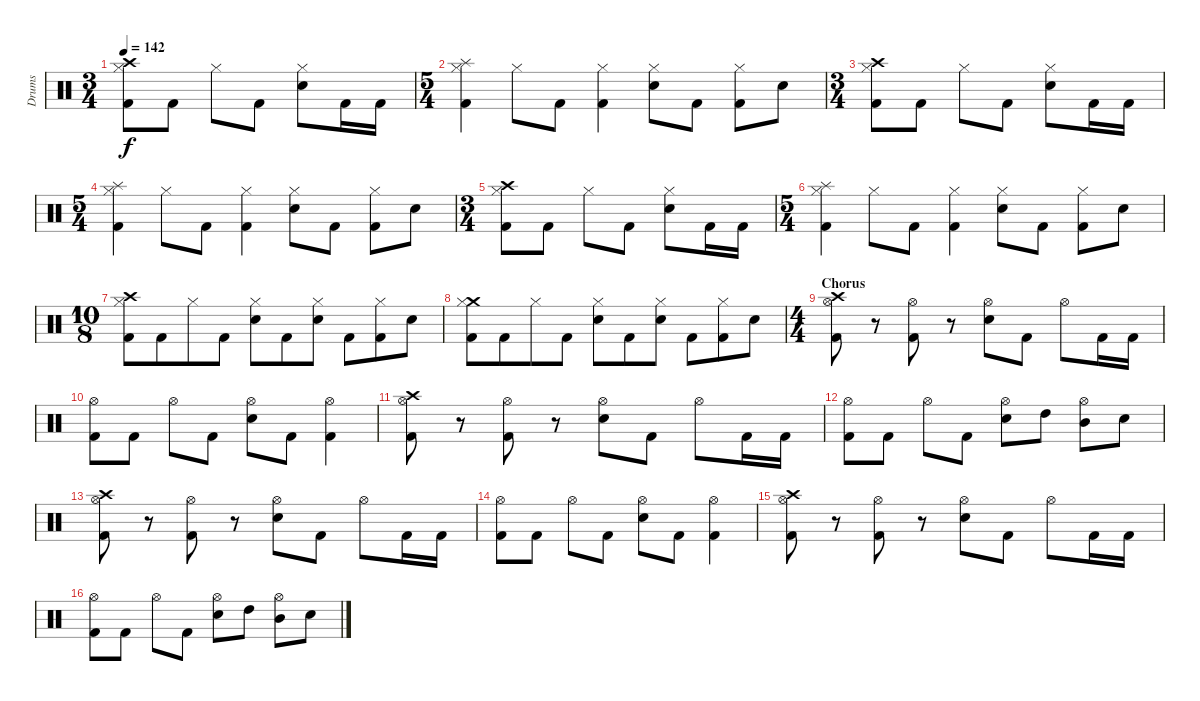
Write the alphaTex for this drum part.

\track ("Drums" "Drums") {instrument percussion}
\staff {score}
\articulation defaults
\ts (3 4)
\tempo 142
\clef neutral
\ks c
("Crash high (hit)" "Hi-Hat (closed)" "Kick (hit) 2").8{dy f} "Kick (hit) 2".8 "Hi-Hat (closed)".8 "Kick (hit) 2".8 ("Hi-Hat (closed)" "Electric Snare (hit)").8 "Kick (hit) 2".16 "Kick (hit) 2".16 |
\ts (5 4)
("Splash (hit)" "Hi-Hat (closed)" "Kick (hit) 2").4 "Hi-Hat (closed)".8 "Kick (hit) 2".8 ("Hi-Hat (closed)" "Kick (hit) 2").4 ("Hi-Hat (closed)" "Electric Snare (hit)").8 "Kick (hit) 2".8 ("Hi-Hat (closed)" "Kick (hit) 2").8 "Electric Snare (hit)".8 |
\ts (3 4)
("Crash high (hit)" "Hi-Hat (closed)" "Kick (hit) 2").8 "Kick (hit) 2".8 "Hi-Hat (closed)".8 "Kick (hit) 2".8 ("Hi-Hat (closed)" "Electric Snare (hit)").8 "Kick (hit) 2".16 "Kick (hit) 2".16 |
\ts (5 4)
("Splash (hit)" "Hi-Hat (closed)" "Kick (hit) 2").4 "Hi-Hat (closed)".8 "Kick (hit) 2".8 ("Hi-Hat (closed)" "Kick (hit) 2").4 ("Hi-Hat (closed)" "Electric Snare (hit)").8 "Kick (hit) 2".8 ("Hi-Hat (closed)" "Kick (hit) 2").8 "Electric Snare (hit)".8 |
\ts (3 4)
("Crash high (hit)" "Hi-Hat (closed)" "Kick (hit) 2").8 "Kick (hit) 2".8 "Hi-Hat (closed)".8 "Kick (hit) 2".8 ("Hi-Hat (closed)" "Electric Snare (hit)").8 "Kick (hit) 2".16 "Kick (hit) 2".16 |
\ts (5 4)
("Splash (hit)" "Hi-Hat (closed)" "Kick (hit) 2").4 "Hi-Hat (closed)".8 "Kick (hit) 2".8 ("Hi-Hat (closed)" "Kick (hit) 2").4 ("Hi-Hat (closed)" "Electric Snare (hit)").8 "Kick (hit) 2".8 ("Hi-Hat (closed)" "Kick (hit) 2").8 "Electric Snare (hit)".8 |
\ts (10 8)
("Crash high (hit)" "Hi-Hat (closed)" "Kick (hit) 2").8 "Kick (hit) 2".8 "Hi-Hat (closed)".8 "Kick (hit) 2".8 ("Hi-Hat (closed)" "Electric Snare (hit)").8 "Kick (hit) 2".8 ("Hi-Hat (closed)" "Electric Snare (hit)").8 "Kick (hit) 2".8 ("Hi-Hat (closed)" "Kick (hit) 2").8 "Electric Snare (hit)".8 |
("Crash medium (hit)" "Hi-Hat (closed)" "Kick (hit) 2").8 "Kick (hit) 2".8 "Hi-Hat (closed)".8 "Kick (hit) 2".8 ("Hi-Hat (closed)" "Electric Snare (hit)").8 "Kick (hit) 2".8 ("Hi-Hat (closed)" "Electric Snare (hit)").8 "Kick (hit) 2".8 ("Hi-Hat (closed)" "Kick (hit) 2").8 "Electric Snare (hit)".8 |
\ts (4 4)
\section ("" "Chorus")
("Crash high (hit)" "Hi-Hat (open)" "Kick (hit) 2").8 r.8 ("Hi-Hat (open)" "Kick (hit) 2").8 r.8 ("Hi-Hat (open)" "Electric Snare (hit)").8 "Kick (hit) 2".8 "Hi-Hat (open)".8 "Kick (hit) 2".16 "Kick (hit) 2".16 |
("Hi-Hat (open)" "Kick (hit) 2").8 "Kick (hit) 2".8 "Hi-Hat (open)".8 "Kick (hit) 2".8 ("Hi-Hat (open)" "Electric Snare (hit)").8 "Kick (hit) 2".8 ("Hi-Hat (open)" "Kick (hit) 2").4 |
("Crash high (hit)" "Hi-Hat (open)" "Kick (hit) 2").8 r.8 ("Hi-Hat (open)" "Kick (hit) 2").8 r.8 ("Hi-Hat (open)" "Electric Snare (hit)").8 "Kick (hit) 2".8 "Hi-Hat (open)".8 "Kick (hit) 2".16 "Kick (hit) 2".16 |
("Hi-Hat (open)" "Kick (hit) 2").8 "Kick (hit) 2".8 "Hi-Hat (open)".8 "Kick (hit) 2".8 ("Hi-Hat (open)" "Electric Snare (hit)").8 "High Tom (hit)".8 ("Hi-Hat (open)" "Mid Tom (hit)").8 "Electric Snare (hit)".8 |
("Crash high (hit)" "Hi-Hat (open)" "Kick (hit) 2").8 r.8 ("Hi-Hat (open)" "Kick (hit) 2").8 r.8 ("Hi-Hat (open)" "Electric Snare (hit)").8 "Kick (hit) 2".8 "Hi-Hat (open)".8 "Kick (hit) 2".16 "Kick (hit) 2".16 |
("Hi-Hat (open)" "Kick (hit) 2").8 "Kick (hit) 2".8 "Hi-Hat (open)".8 "Kick (hit) 2".8 ("Hi-Hat (open)" "Electric Snare (hit)").8 "Kick (hit) 2".8 ("Hi-Hat (open)" "Kick (hit) 2").4 |
("Crash high (hit)" "Hi-Hat (open)" "Kick (hit) 2").8 r.8 ("Hi-Hat (open)" "Kick (hit) 2").8 r.8 ("Hi-Hat (open)" "Electric Snare (hit)").8 "Kick (hit) 2".8 "Hi-Hat (open)".8 "Kick (hit) 2".16 "Kick (hit) 2".16 |
("Hi-Hat (open)" "Kick (hit) 2").8 "Kick (hit) 2".8 "Hi-Hat (open)".8 "Kick (hit) 2".8 ("Hi-Hat (open)" "Electric Snare (hit)").8 "High Tom (hit)".8 ("Hi-Hat (open)" "Mid Tom (hit)").8 "Electric Snare (hit)".8
